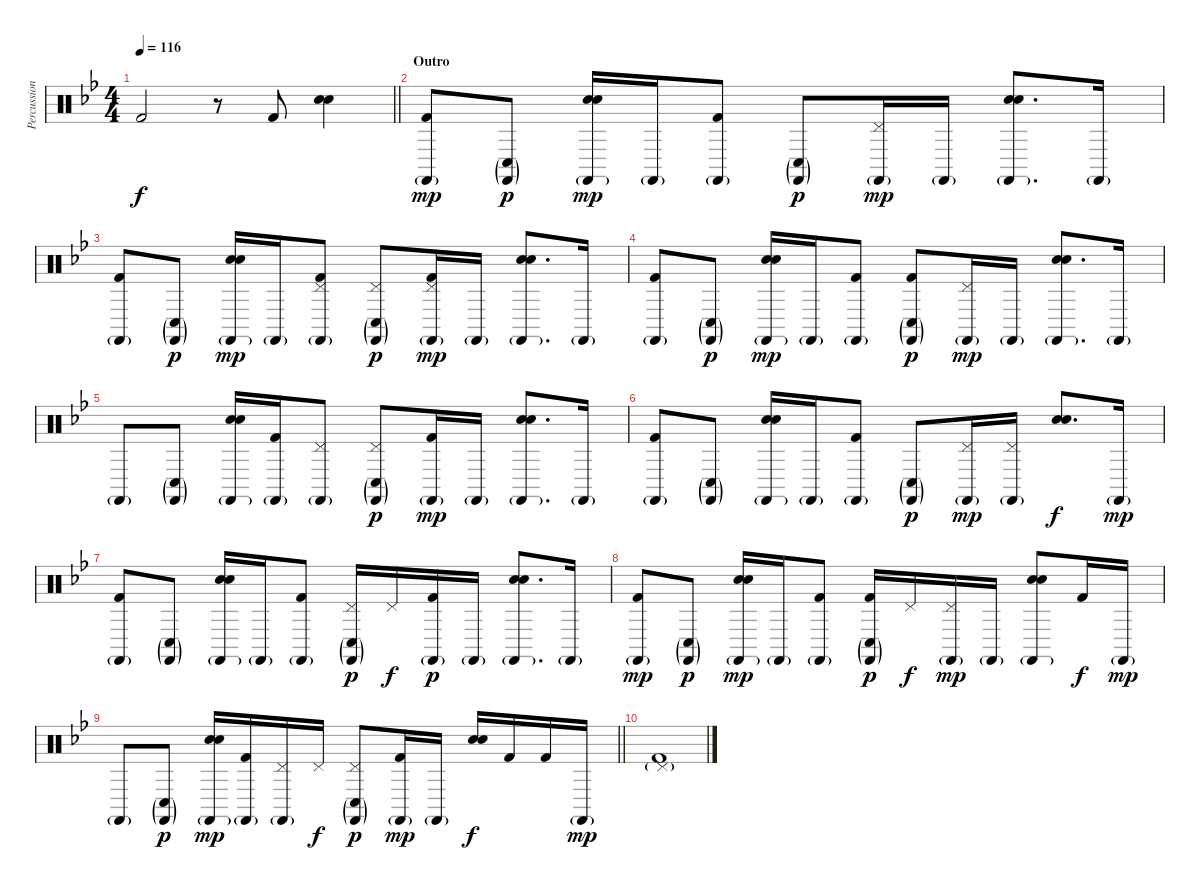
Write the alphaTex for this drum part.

\track ("Percussion" "Percussion") {instrument percussion}
\staff {score}
\articulation defaults
\ts (4 4)
\tempo 116
\clef neutral
\barLineRight lightlight
\ks gminor "Kick (hit) 2".2{dy f}
r.8 "Kick (hit) 2".8 ("Snare (hit) 2" "Hand Clap (hit)").4 |
\section ("" "Outro")
("Castanets (hit)"{g} "Kick (hit) 2").8{dy mp} ("Castanets (hit)"{g} "Conga low (hit)"{g}).8{dy p} ("Castanets (hit)"{g} "Snare (hit) 2" "Hand Clap (hit)").16{dy mp} "Castanets (hit)"{g}.16 ("Castanets (hit)"{g} "Kick (hit) 2").8 ("Castanets (hit)"{g} "Conga low (hit)"{g}).8{dy p} ("Castanets (hit)"{g} "Pedal Hi-Hat (hit)").16{dy mp} "Castanets (hit)"{g}.16 ("Castanets (hit)"{g} "Snare (hit) 2" "Hand Clap (hit)").8{d} "Castanets (hit)"{g}.16 |
("Castanets (hit)"{g} "Kick (hit) 2").8 ("Castanets (hit)"{g} "Conga low (hit)"{g}).8{dy p} ("Castanets (hit)"{g} "Snare (hit) 2" "Hand Clap (hit)").16{dy mp} "Castanets (hit)"{g}.16 ("Castanets (hit)"{g} "Pedal Hi-Hat (hit)" "Kick (hit) 2").8 ("Castanets (hit)"{g} "Pedal Hi-Hat (hit)" "Conga low (hit)"{g}).8{dy p} ("Castanets (hit)"{g} "Pedal Hi-Hat (hit)" "Kick (hit) 2").16{dy mp} "Castanets (hit)"{g}.16 ("Castanets (hit)"{g} "Snare (hit) 2" "Hand Clap (hit)").8{d} "Castanets (hit)"{g}.16 |
("Castanets (hit)"{g} "Kick (hit) 2").8 ("Castanets (hit)"{g} "Conga low (hit)"{g}).8{dy p} ("Castanets (hit)"{g} "Snare (hit) 2" "Hand Clap (hit)").16{dy mp} "Castanets (hit)"{g}.16 ("Castanets (hit)"{g} "Kick (hit) 2").8 ("Castanets (hit)"{g} "Conga low (hit)"{g} "Kick (hit) 2").8{dy p} ("Castanets (hit)"{g} "Pedal Hi-Hat (hit)").16{dy mp} "Castanets (hit)"{g}.16 ("Castanets (hit)"{g} "Snare (hit) 2" "Hand Clap (hit)").8{d} "Castanets (hit)"{g}.16 |
"Castanets (hit)"{g}.8 ("Castanets (hit)"{g} "Conga low (hit)"{g}).8 ("Castanets (hit)"{g} "Snare (hit) 2" "Hand Clap (hit)").16 ("Castanets (hit)"{g} "Kick (hit) 2").16 ("Castanets (hit)"{g} "Pedal Hi-Hat (hit)").8 ("Castanets (hit)"{g} "Pedal Hi-Hat (hit)" "Conga low (hit)"{g}).8{dy p} ("Castanets (hit)"{g} "Kick (hit) 2").16{dy mp} "Castanets (hit)"{g}.16 ("Castanets (hit)"{g} "Snare (hit) 2" "Hand Clap (hit)").8{d} "Castanets (hit)"{g}.16 |
("Castanets (hit)"{g} "Kick (hit) 2").8 ("Castanets (hit)"{g} "Conga low (hit)"{g}).8 ("Castanets (hit)"{g} "Snare (hit) 2" "Hand Clap (hit)").16 "Castanets (hit)"{g}.16 ("Castanets (hit)"{g} "Kick (hit) 2").8 ("Castanets (hit)"{g} "Conga low (hit)"{g}).8{dy p} ("Castanets (hit)"{g} "Pedal Hi-Hat (hit)").16{dy mp} ("Castanets (hit)"{g} "Pedal Hi-Hat (hit)").16 ("Snare (hit) 2" "Hand Clap (hit)").8{d dy f} "Castanets (hit)"{g}.16{dy mp} |
("Castanets (hit)"{g} "Kick (hit) 2").8 ("Castanets (hit)"{g} "Conga low (hit)"{g}).8 ("Castanets (hit)"{g} "Snare (hit) 2" "Hand Clap (hit)").16 "Castanets (hit)"{g}.16 ("Castanets (hit)"{g} "Kick (hit) 2").8 ("Castanets (hit)"{g} "Pedal Hi-Hat (hit)" "Conga low (hit)"{g}).16{dy p} "Pedal Hi-Hat (hit)".16{dy f} ("Castanets (hit)"{g} "Kick (hit) 2").16{dy p} "Castanets (hit)"{g}.16 ("Castanets (hit)"{g} "Snare (hit) 2" "Hand Clap (hit)").8{d} "Castanets (hit)"{g}.16 |
("Castanets (hit)"{g} "Kick (hit) 2").8{dy mp} ("Castanets (hit)"{g} "Conga low (hit)"{g}).8{dy p} ("Castanets (hit)"{g} "Snare (hit) 2" "Hand Clap (hit)").16{dy mp} "Castanets (hit)"{g}.16 ("Castanets (hit)"{g} "Kick (hit) 2").8 ("Castanets (hit)"{g} "Conga low (hit)"{g} "Kick (hit) 2").16{dy p} "Pedal Hi-Hat (hit)".16{dy f} ("Castanets (hit)"{g} "Pedal Hi-Hat (hit)").16{dy mp} "Castanets (hit)"{g}.16 ("Castanets (hit)"{g} "Snare (hit) 2" "Hand Clap (hit)").8 "Kick (hit) 2".16{dy f} "Castanets (hit)"{g}.16{dy mp} |
\barLineRight lightlight "Castanets (hit)"{g}.8
("Castanets (hit)"{g} "Conga low (hit)"{g}).8{dy p} ("Castanets (hit)"{g} "Snare (hit) 2" "Hand Clap (hit)").16{dy mp} ("Castanets (hit)"{g} "Kick (hit) 2").16 ("Castanets (hit)"{g} "Pedal Hi-Hat (hit)").16 "Pedal Hi-Hat (hit)".16{dy f} ("Castanets (hit)"{g} "Pedal Hi-Hat (hit)" "Conga low (hit)"{g}).8{dy p} ("Castanets (hit)"{g} "Kick (hit) 2").16{dy mp} "Castanets (hit)"{g}.16 ("Snare (hit) 2" "Hand Clap (hit)").16{dy f} "Kick (hit) 2".16 "Kick (hit) 2".16 "Castanets (hit)"{g}.16{dy mp} |
("Pedal Hi-Hat (hit)"{g} "Kick (hit) 2").1
